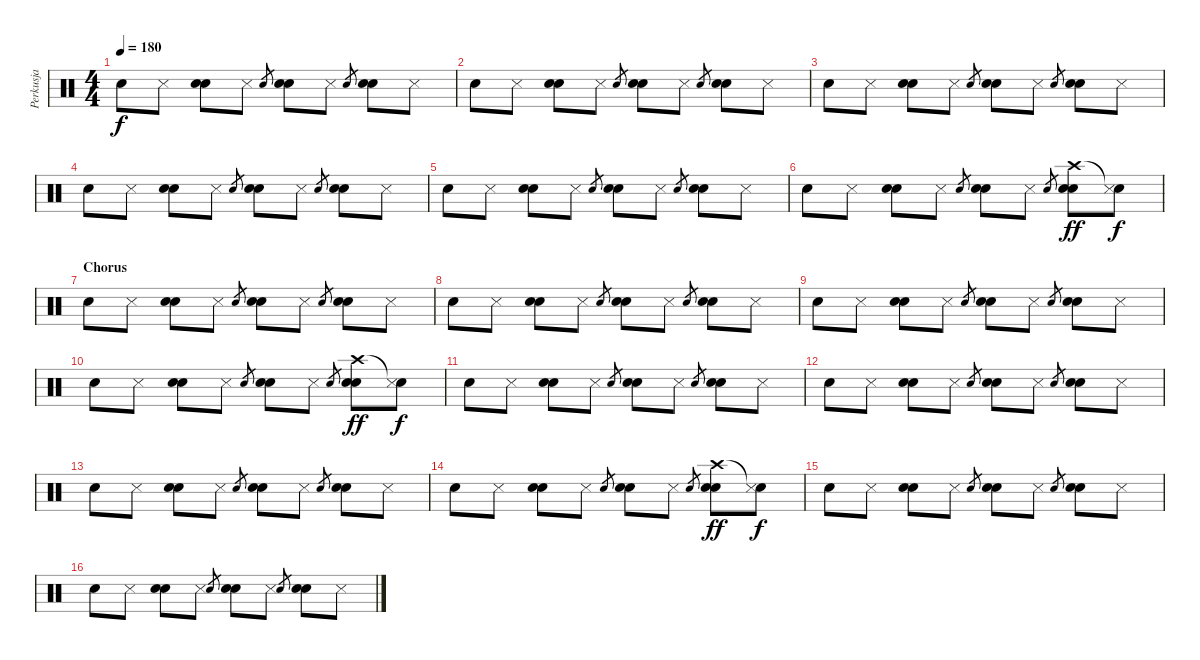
\track ("Perkusja" "Perkusja") {instrument percussion}
\staff {score}
\articulation defaults
\ts (4 4)
\tempo 180
\clef neutral
\ks c "Snare (hit) 2".8{dy f} "Snare (side stick) 3".8
("Electric Snare (hit)" "Metronome (bell)").8 "Snare (side stick) 3".8 "Snare (hit) 2".8{gr} ("Snare (hit) 2" "Metronome (bell)").8 "Snare (side stick) 3".8 "Electric Snare (hit)".8{gr} ("Electric Snare (hit)" "Metronome (bell)").8 "Snare (side stick) 3".8 |
"Snare (hit) 2".8 "Snare (side stick) 3".8 ("Electric Snare (hit)" "Metronome (bell)").8 "Snare (side stick) 3".8 "Snare (hit) 2".8{gr} ("Snare (hit) 2" "Metronome (bell)").8 "Snare (side stick) 3".8 "Electric Snare (hit)".8{gr} ("Electric Snare (hit)" "Metronome (bell)").8 "Snare (side stick) 3".8 |
"Snare (hit) 2".8 "Snare (side stick) 3".8 ("Electric Snare (hit)" "Metronome (bell)").8 "Snare (side stick) 3".8 "Snare (hit) 2".8{gr} ("Snare (hit) 2" "Metronome (bell)").8 "Snare (side stick) 3".8 "Electric Snare (hit)".8{gr} ("Electric Snare (hit)" "Metronome (bell)").8 "Snare (side stick) 3".8 |
"Snare (hit) 2".8 "Snare (side stick) 3".8 ("Electric Snare (hit)" "Metronome (bell)").8 "Snare (side stick) 3".8 "Snare (hit) 2".8{gr} ("Snare (hit) 2" "Metronome (bell)").8 "Snare (side stick) 3".8 "Electric Snare (hit)".8{gr} ("Electric Snare (hit)" "Metronome (bell)").8 "Snare (side stick) 3".8 |
"Snare (hit) 2".8 "Snare (side stick) 3".8 ("Electric Snare (hit)" "Metronome (bell)").8 "Snare (side stick) 3".8 "Snare (hit) 2".8{gr} ("Snare (hit) 2" "Metronome (bell)").8 "Snare (side stick) 3".8 "Electric Snare (hit)".8{gr} ("Electric Snare (hit)" "Metronome (bell)").8 "Snare (side stick) 3".8 |
"Snare (hit) 2".8 "Snare (side stick) 3".8 ("Electric Snare (hit)" "Metronome (bell)").8 "Snare (side stick) 3".8 "Snare (hit) 2".8{gr} ("Snare (hit) 2" "Metronome (bell)").8 "Snare (side stick) 3".8 "Electric Snare (hit)".8{gr} ("Crash high (hit)" "Electric Snare (hit)" "Metronome (bell)").8{dy ff} ("Snare (hit)"{t} "Snare (side stick) 3").8{dy f} |
\section ("" "Chorus")
"Snare (hit) 2".8 "Snare (side stick) 3".8 ("Electric Snare (hit)" "Metronome (bell)").8 "Snare (side stick) 3".8 "Snare (hit) 2".8{gr} ("Snare (hit) 2" "Metronome (bell)").8 "Snare (side stick) 3".8 "Electric Snare (hit)".8{gr} ("Electric Snare (hit)" "Metronome (bell)").8 "Snare (side stick) 3".8 |
"Snare (hit) 2".8 "Snare (side stick) 3".8 ("Electric Snare (hit)" "Metronome (bell)").8 "Snare (side stick) 3".8 "Snare (hit) 2".8{gr} ("Snare (hit) 2" "Metronome (bell)").8 "Snare (side stick) 3".8 "Electric Snare (hit)".8{gr} ("Electric Snare (hit)" "Metronome (bell)").8 "Snare (side stick) 3".8 |
"Snare (hit) 2".8 "Snare (side stick) 3".8 ("Electric Snare (hit)" "Metronome (bell)").8 "Snare (side stick) 3".8 "Snare (hit) 2".8{gr} ("Snare (hit) 2" "Metronome (bell)").8 "Snare (side stick) 3".8 "Electric Snare (hit)".8{gr} ("Electric Snare (hit)" "Metronome (bell)").8 "Snare (side stick) 3".8 |
"Snare (hit) 2".8 "Snare (side stick) 3".8 ("Electric Snare (hit)" "Metronome (bell)").8 "Snare (side stick) 3".8 "Snare (hit) 2".8{gr} ("Snare (hit) 2" "Metronome (bell)").8 "Snare (side stick) 3".8 "Electric Snare (hit)".8{gr} ("Crash high (hit)" "Electric Snare (hit)" "Metronome (bell)").8{dy ff} ("Snare (hit)"{t} "Snare (side stick) 3").8{dy f} |
"Snare (hit) 2".8 "Snare (side stick) 3".8 ("Electric Snare (hit)" "Metronome (bell)").8 "Snare (side stick) 3".8 "Snare (hit) 2".8{gr} ("Snare (hit) 2" "Metronome (bell)").8 "Snare (side stick) 3".8 "Electric Snare (hit)".8{gr} ("Electric Snare (hit)" "Metronome (bell)").8 "Snare (side stick) 3".8 |
"Snare (hit) 2".8 "Snare (side stick) 3".8 ("Electric Snare (hit)" "Metronome (bell)").8 "Snare (side stick) 3".8 "Snare (hit) 2".8{gr} ("Snare (hit) 2" "Metronome (bell)").8 "Snare (side stick) 3".8 "Electric Snare (hit)".8{gr} ("Electric Snare (hit)" "Metronome (bell)").8 "Snare (side stick) 3".8 |
"Snare (hit) 2".8 "Snare (side stick) 3".8 ("Electric Snare (hit)" "Metronome (bell)").8 "Snare (side stick) 3".8 "Snare (hit) 2".8{gr} ("Snare (hit) 2" "Metronome (bell)").8 "Snare (side stick) 3".8 "Electric Snare (hit)".8{gr} ("Electric Snare (hit)" "Metronome (bell)").8 "Snare (side stick) 3".8 |
"Snare (hit) 2".8 "Snare (side stick) 3".8 ("Electric Snare (hit)" "Metronome (bell)").8 "Snare (side stick) 3".8 "Snare (hit) 2".8{gr} ("Snare (hit) 2" "Metronome (bell)").8 "Snare (side stick) 3".8 "Electric Snare (hit)".8{gr} ("Crash high (hit)" "Electric Snare (hit)" "Metronome (bell)").8{dy ff} ("Snare (hit)"{t} "Snare (side stick) 3").8{dy f} |
"Snare (hit) 2".8 "Snare (side stick) 3".8 ("Electric Snare (hit)" "Metronome (bell)").8 "Snare (side stick) 3".8 "Snare (hit) 2".8{gr} ("Snare (hit) 2" "Metronome (bell)").8 "Snare (side stick) 3".8 "Electric Snare (hit)".8{gr} ("Electric Snare (hit)" "Metronome (bell)").8 "Snare (side stick) 3".8 |
"Snare (hit) 2".8 "Snare (side stick) 3".8 ("Electric Snare (hit)" "Metronome (bell)").8 "Snare (side stick) 3".8 "Snare (hit) 2".8{gr} ("Snare (hit) 2" "Metronome (bell)").8 "Snare (side stick) 3".8 "Electric Snare (hit)".8{gr} ("Electric Snare (hit)" "Metronome (bell)").8 "Snare (side stick) 3".8
